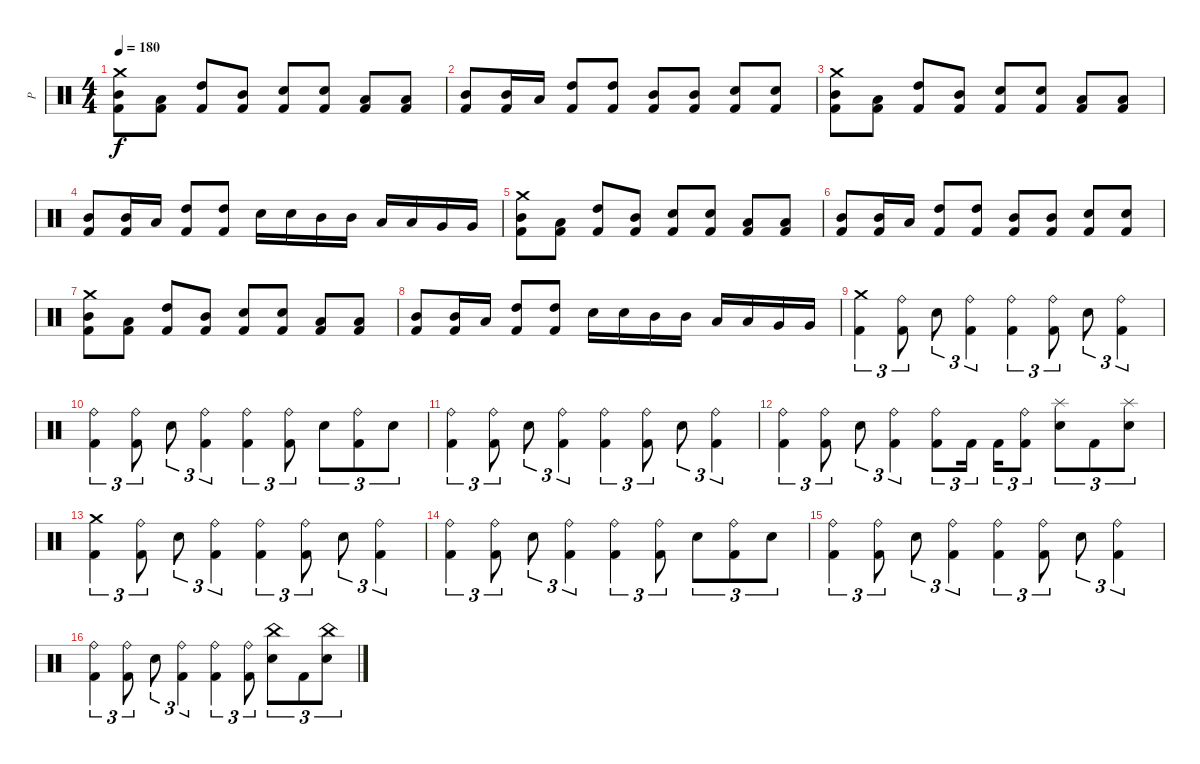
\track ("P" "P") {instrument percussion}
\staff {score}
\articulation defaults
\ts (4 4)
\tempo 180
\clef neutral
\ks c
("Crash medium (hit)" "Mid Tom (hit)" "Kick (hit) 2").8{dy f} ("Low Tom (hit)" "Kick (hit) 2").8 ("High Tom (hit)" "Kick (hit) 2").8 ("Mid Tom (hit)" "Kick (hit) 2").8 ("Electric Snare (hit)" "Kick (hit) 2").8 ("Electric Snare (hit)" "Kick (hit) 2").8 ("Low Tom (hit)" "Kick (hit) 2").8 ("Low Tom (hit)" "Kick (hit) 2").8 |
("Mid Tom (hit)" "Kick (hit) 2").8 ("Mid Tom (hit)" "Kick (hit) 2").16 "Low Tom (hit)".16 ("High Tom (hit)" "Kick (hit) 2").8 ("High Tom (hit)" "Kick (hit) 2").8 ("Mid Tom (hit)" "Kick (hit) 2").8 ("Mid Tom (hit)" "Kick (hit) 2").8 ("Electric Snare (hit)" "Kick (hit) 2").8 ("Electric Snare (hit)" "Kick (hit) 2").8 |
("Crash medium (hit)" "Mid Tom (hit)" "Kick (hit) 2").8 ("Low Tom (hit)" "Kick (hit) 2").8 ("High Tom (hit)" "Kick (hit) 2").8 ("Mid Tom (hit)" "Kick (hit) 2").8 ("Electric Snare (hit)" "Kick (hit) 2").8 ("Electric Snare (hit)" "Kick (hit) 2").8 ("Low Tom (hit)" "Kick (hit) 2").8 ("Low Tom (hit)" "Kick (hit) 2").8 |
("Mid Tom (hit)" "Kick (hit) 2").8 ("Mid Tom (hit)" "Kick (hit) 2").16 "Low Tom (hit)".16 ("High Tom (hit)" "Kick (hit) 2").8 ("High Tom (hit)" "Kick (hit) 2").8 "Electric Snare (hit)".16 "Electric Snare (hit)".16 "Mid Tom (hit)".16 "Mid Tom (hit)".16 "Low Tom (hit)".16 "Low Tom (hit)".16 "Very Low Tom (hit)".16 "Very Low Tom (hit)".16 |
("Crash medium (hit)" "Mid Tom (hit)" "Kick (hit) 2").8 ("Low Tom (hit)" "Kick (hit) 2").8 ("High Tom (hit)" "Kick (hit) 2").8 ("Mid Tom (hit)" "Kick (hit) 2").8 ("Electric Snare (hit)" "Kick (hit) 2").8 ("Electric Snare (hit)" "Kick (hit) 2").8 ("Low Tom (hit)" "Kick (hit) 2").8 ("Low Tom (hit)" "Kick (hit) 2").8 |
("Mid Tom (hit)" "Kick (hit) 2").8 ("Mid Tom (hit)" "Kick (hit) 2").16 "Low Tom (hit)".16 ("High Tom (hit)" "Kick (hit) 2").8 ("High Tom (hit)" "Kick (hit) 2").8 ("Mid Tom (hit)" "Kick (hit) 2").8 ("Mid Tom (hit)" "Kick (hit) 2").8 ("Electric Snare (hit)" "Kick (hit) 2").8 ("Electric Snare (hit)" "Kick (hit) 2").8 |
("Crash medium (hit)" "Mid Tom (hit)" "Kick (hit) 2").8 ("Low Tom (hit)" "Kick (hit) 2").8 ("High Tom (hit)" "Kick (hit) 2").8 ("Mid Tom (hit)" "Kick (hit) 2").8 ("Electric Snare (hit)" "Kick (hit) 2").8 ("Electric Snare (hit)" "Kick (hit) 2").8 ("Low Tom (hit)" "Kick (hit) 2").8 ("Low Tom (hit)" "Kick (hit) 2").8 |
("Mid Tom (hit)" "Kick (hit) 2").8 ("Mid Tom (hit)" "Kick (hit) 2").16 "Low Tom (hit)".16 ("High Tom (hit)" "Kick (hit) 2").8 ("High Tom (hit)" "Kick (hit) 2").8 "Electric Snare (hit)".16 "Electric Snare (hit)".16 "Mid Tom (hit)".16 "Mid Tom (hit)".16 "Low Tom (hit)".16 "Low Tom (hit)".16 "Very Low Tom (hit)".16 "Very Low Tom (hit)".16 |
("Crash medium (hit)" "Kick (hit) 2").4{tu (3 2)} ("Ride (bell)" "Kick (hit) 2").8{tu (3 2)} "Electric Snare (hit)".8{tu (3 2)} ("Ride (bell)" "Kick (hit) 2").4{tu (3 2)} ("Ride (bell)" "Kick (hit) 2").4{tu (3 2)} ("Ride (bell)" "Kick (hit) 2").8{tu (3 2)} "Electric Snare (hit)".8{tu (3 2)} ("Ride (bell)" "Kick (hit) 2").4{tu (3 2)} |
("Ride (bell)" "Kick (hit) 2").4{tu (3 2)} ("Ride (bell)" "Kick (hit) 2").8{tu (3 2)} "Electric Snare (hit)".8{tu (3 2)} ("Ride (bell)" "Kick (hit) 2").4{tu (3 2)} ("Ride (bell)" "Kick (hit) 2").4{tu (3 2)} ("Ride (bell)" "Kick (hit) 2").8{tu (3 2)} "Electric Snare (hit)".8{tu (3 2)} ("Ride (bell)" "Kick (hit) 2").8{tu (3 2)} "Electric Snare (hit)".8{tu (3 2)} |
("Ride (bell)" "Kick (hit) 2").4{tu (3 2)} ("Ride (bell)" "Kick (hit) 2").8{tu (3 2)} "Electric Snare (hit)".8{tu (3 2)} ("Ride (bell)" "Kick (hit) 2").4{tu (3 2)} ("Ride (bell)" "Kick (hit) 2").4{tu (3 2)} ("Ride (bell)" "Kick (hit) 2").8{tu (3 2)} "Electric Snare (hit)".8{tu (3 2)} ("Ride (bell)" "Kick (hit) 2").4{tu (3 2)} |
("Ride (bell)" "Kick (hit) 2").4{tu (3 2)} ("Ride (bell)" "Kick (hit) 2").8{tu (3 2)} "Electric Snare (hit)".8{tu (3 2)} ("Ride (bell)" "Kick (hit) 2").4{tu (3 2)} ("Ride (bell)" "Kick (hit) 2").8{tu (3 2)} "Kick (hit) 2".16{tu (3 2)} "Kick (hit) 2".16{tu (3 2)} ("Ride (bell)" "Kick (hit) 2").8{tu (3 2)} ("Splash (hit)" "Electric Snare (hit)").8{tu (3 2)} "Kick (hit) 2".8{tu (3 2)} ("Splash (hit)" "Electric Snare (hit)").8{tu (3 2)} |
("Crash medium (hit)" "Kick (hit) 2").4{tu (3 2)} ("Ride (bell)" "Kick (hit) 2").8{tu (3 2)} "Electric Snare (hit)".8{tu (3 2)} ("Ride (bell)" "Kick (hit) 2").4{tu (3 2)} ("Ride (bell)" "Kick (hit) 2").4{tu (3 2)} ("Ride (bell)" "Kick (hit) 2").8{tu (3 2)} "Electric Snare (hit)".8{tu (3 2)} ("Ride (bell)" "Kick (hit) 2").4{tu (3 2)} |
("Ride (bell)" "Kick (hit) 2").4{tu (3 2)} ("Ride (bell)" "Kick (hit) 2").8{tu (3 2)} "Electric Snare (hit)".8{tu (3 2)} ("Ride (bell)" "Kick (hit) 2").4{tu (3 2)} ("Ride (bell)" "Kick (hit) 2").4{tu (3 2)} ("Ride (bell)" "Kick (hit) 2").8{tu (3 2)} "Electric Snare (hit)".8{tu (3 2)} ("Ride (bell)" "Kick (hit) 2").8{tu (3 2)} "Electric Snare (hit)".8{tu (3 2)} |
("Ride (bell)" "Kick (hit) 2").4{tu (3 2)} ("Ride (bell)" "Kick (hit) 2").8{tu (3 2)} "Electric Snare (hit)".8{tu (3 2)} ("Ride (bell)" "Kick (hit) 2").4{tu (3 2)} ("Ride (bell)" "Kick (hit) 2").4{tu (3 2)} ("Ride (bell)" "Kick (hit) 2").8{tu (3 2)} "Electric Snare (hit)".8{tu (3 2)} ("Ride (bell)" "Kick (hit) 2").4{tu (3 2)} |
("Ride (bell)" "Kick (hit) 2").4{tu (3 2)} ("Ride (bell)" "Kick (hit) 2").8{tu (3 2)} "Electric Snare (hit)".8{tu (3 2)} ("Ride (bell)" "Kick (hit) 2").4{tu (3 2)} ("Ride (bell)" "Kick (hit) 2").4{tu (3 2)} ("Ride (bell)" "Kick (hit) 2").8{tu (3 2)} ("China (hit)" "Electric Snare (hit)").8{tu (3 2)} "Kick (hit) 2".8{tu (3 2)} ("China (hit)" "Electric Snare (hit)").8{tu (3 2)}
